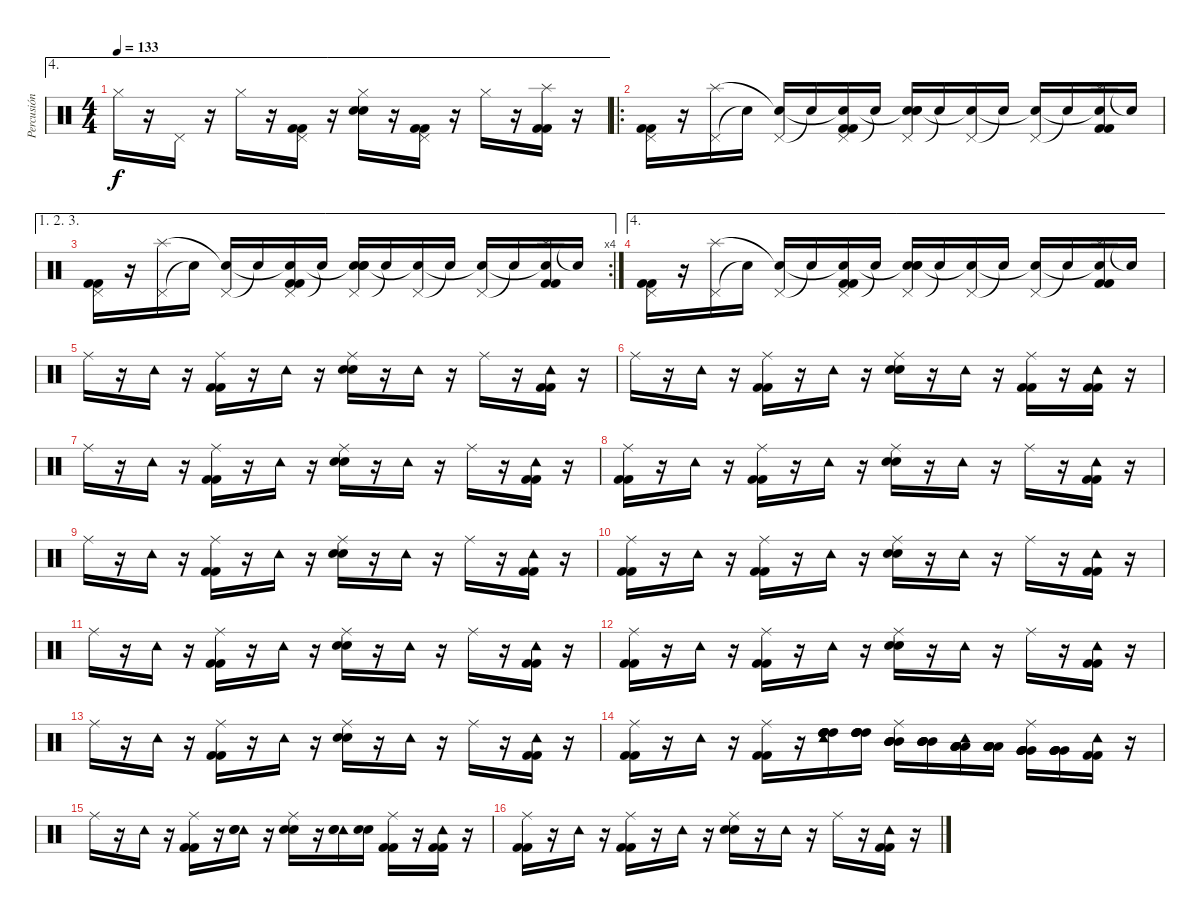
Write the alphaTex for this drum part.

\track ("Percusión" "Percusión") {instrument percussion}
\staff {score}
\articulation defaults
\ae 4
\ts (4 4)
\tempo 133
\clef neutral
\ks c "Hi-Hat (closed)".16{dy f}
r.16 "Pedal Hi-Hat (hit)".16 r.16 "Hi-Hat (closed)".16 r.16 ("Pedal Hi-Hat (hit)" "Kick (hit) 2" "Kick (hit) 2").16 r.16 ("Hi-Hat (closed)" "Electric Snare (hit)" "Electric Snare (hit)").16 r.16 ("Pedal Hi-Hat (hit)" "Kick (hit) 2" "Kick (hit) 2").16 r.16 "Hi-Hat (closed)".16 r.16 ("Splash (hit)" "Kick (hit) 2" "Kick (hit) 2").16 r.16 |
\ro
("Pedal Hi-Hat (hit)" "Kick (hit) 2" "Kick (hit) 2").16 r.16 ("Pedal Hi-Hat (hit)" "Splash (hit)").16 "Snare (hit)"{t}.16 ("Pedal Hi-Hat (hit)" "Snare (hit)"{t}).16 "Snare (hit)"{t}.16 ("Pedal Hi-Hat (hit)" "Snare (hit)"{t} "Kick (hit) 2" "Kick (hit) 2").16 "Snare (hit)"{t}.16 ("Pedal Hi-Hat (hit)" "Snare (hit)"{t} "Electric Snare (hit)" "Electric Snare (hit)").16 "Snare (hit)"{t}.16 ("Pedal Hi-Hat (hit)" "Snare (hit)"{t}).16 "Snare (hit)"{t}.16 ("Pedal Hi-Hat (hit)" "Snare (hit)"{t}).16 "Snare (hit)"{t}.16 ("Splash (hit)" "Snare (hit)"{t} "Kick (hit) 2" "Kick (hit) 2").16 "Snare (hit)"{t}.16 |
\ae (1 2 3)
\rc 4
("Pedal Hi-Hat (hit)" "Kick (hit) 2" "Kick (hit) 2").16 r.16 ("Pedal Hi-Hat (hit)" "Splash (hit)").16 "Snare (hit)"{t}.16 ("Pedal Hi-Hat (hit)" "Snare (hit)"{t}).16 "Snare (hit)"{t}.16 ("Pedal Hi-Hat (hit)" "Snare (hit)"{t} "Kick (hit) 2" "Kick (hit) 2").16 "Snare (hit)"{t}.16 ("Pedal Hi-Hat (hit)" "Snare (hit)"{t} "Electric Snare (hit)" "Electric Snare (hit)").16 "Snare (hit)"{t}.16 ("Pedal Hi-Hat (hit)" "Snare (hit)"{t}).16 "Snare (hit)"{t}.16 ("Pedal Hi-Hat (hit)" "Snare (hit)"{t}).16 "Snare (hit)"{t}.16 ("Splash (hit)" "Snare (hit)"{t} "Kick (hit) 2" "Kick (hit) 2").16 "Snare (hit)"{t}.16 |
\ae 4
("Pedal Hi-Hat (hit)" "Kick (hit) 2" "Kick (hit) 2").16 r.16 ("Pedal Hi-Hat (hit)" "Splash (hit)").16 "Snare (hit)"{t}.16 ("Pedal Hi-Hat (hit)" "Snare (hit)"{t}).16 "Snare (hit)"{t}.16 ("Pedal Hi-Hat (hit)" "Snare (hit)"{t} "Kick (hit) 2" "Kick (hit) 2").16 "Snare (hit)"{t}.16 ("Pedal Hi-Hat (hit)" "Snare (hit)"{t} "Electric Snare (hit)" "Electric Snare (hit)").16 "Snare (hit)"{t}.16 ("Pedal Hi-Hat (hit)" "Snare (hit)"{t}).16 "Snare (hit)"{t}.16 ("Pedal Hi-Hat (hit)" "Snare (hit)"{t}).16 "Snare (hit)"{t}.16 ("Splash (hit)" "Snare (hit)"{t} "Kick (hit) 2" "Kick (hit) 2").16 "Snare (hit)"{t}.16 |
"Ride (middle)".16 r.16 "Tambourine (hit)".16 r.16 ("Ride (middle)" "Kick (hit) 2" "Kick (hit) 2").16 r.16 "Tambourine (hit)".16 r.16 ("Ride (middle)" "Electric Snare (hit)" "Electric Snare (hit)").16 r.16 "Tambourine (hit)".16 r.16 "Ride (middle)".16 r.16 ("Tambourine (hit)" "Kick (hit) 2" "Kick (hit) 2").16 r.16 |
"Ride (middle)".16 r.16 "Tambourine (hit)".16 r.16 ("Ride (middle)" "Kick (hit) 2" "Kick (hit) 2").16 r.16 "Tambourine (hit)".16 r.16 ("Ride (middle)" "Electric Snare (hit)" "Electric Snare (hit)").16 r.16 "Tambourine (hit)".16 r.16 ("Ride (middle)" "Kick (hit) 2" "Kick (hit) 2").16 r.16 ("Tambourine (hit)" "Kick (hit) 2" "Kick (hit) 2").16 r.16 |
"Ride (middle)".16 r.16 "Tambourine (hit)".16 r.16 ("Ride (middle)" "Kick (hit) 2" "Kick (hit) 2").16 r.16 "Tambourine (hit)".16 r.16 ("Ride (middle)" "Electric Snare (hit)" "Electric Snare (hit)").16 r.16 "Tambourine (hit)".16 r.16 "Ride (middle)".16 r.16 ("Tambourine (hit)" "Kick (hit) 2" "Kick (hit) 2").16 r.16 |
("Ride (middle)" "Kick (hit) 2" "Kick (hit) 2").16 r.16 "Tambourine (hit)".16 r.16 ("Ride (middle)" "Kick (hit) 2" "Kick (hit) 2").16 r.16 "Tambourine (hit)".16 r.16 ("Ride (middle)" "Electric Snare (hit)" "Electric Snare (hit)").16 r.16 "Tambourine (hit)".16 r.16 "Ride (middle)".16 r.16 ("Tambourine (hit)" "Kick (hit) 2" "Kick (hit) 2").16 r.16 |
"Ride (middle)".16 r.16 "Tambourine (hit)".16 r.16 ("Ride (middle)" "Kick (hit) 2" "Kick (hit) 2").16 r.16 "Tambourine (hit)".16 r.16 ("Ride (middle)" "Electric Snare (hit)" "Electric Snare (hit)").16 r.16 "Tambourine (hit)".16 r.16 "Ride (middle)".16 r.16 ("Tambourine (hit)" "Kick (hit) 2" "Kick (hit) 2").16 r.16 |
("Ride (middle)" "Kick (hit) 2" "Kick (hit) 2").16 r.16 "Tambourine (hit)".16 r.16 ("Ride (middle)" "Kick (hit) 2" "Kick (hit) 2").16 r.16 "Tambourine (hit)".16 r.16 ("Ride (middle)" "Electric Snare (hit)" "Electric Snare (hit)").16 r.16 "Tambourine (hit)".16 r.16 "Ride (middle)".16 r.16 ("Tambourine (hit)" "Kick (hit) 2" "Kick (hit) 2").16 r.16 |
"Ride (middle)".16 r.16 "Tambourine (hit)".16 r.16 ("Ride (middle)" "Kick (hit) 2" "Kick (hit) 2").16 r.16 "Tambourine (hit)".16 r.16 ("Ride (middle)" "Electric Snare (hit)" "Electric Snare (hit)").16 r.16 "Tambourine (hit)".16 r.16 "Ride (middle)".16 r.16 ("Tambourine (hit)" "Kick (hit) 2" "Kick (hit) 2").16 r.16 |
("Ride (middle)" "Kick (hit) 2" "Kick (hit) 2").16 r.16 "Tambourine (hit)".16 r.16 ("Ride (middle)" "Kick (hit) 2" "Kick (hit) 2").16 r.16 "Tambourine (hit)".16 r.16 ("Ride (middle)" "Electric Snare (hit)" "Electric Snare (hit)").16 r.16 "Tambourine (hit)".16 r.16 "Ride (middle)".16 r.16 ("Tambourine (hit)" "Kick (hit) 2" "Kick (hit) 2").16 r.16 |
"Ride (middle)".16 r.16 "Tambourine (hit)".16 r.16 ("Ride (middle)" "Kick (hit) 2" "Kick (hit) 2").16 r.16 "Tambourine (hit)".16 r.16 ("Ride (middle)" "Electric Snare (hit)" "Electric Snare (hit)").16 r.16 "Tambourine (hit)".16 r.16 "Ride (middle)".16 r.16 ("Tambourine (hit)" "Kick (hit) 2" "Kick (hit) 2").16 r.16 |
("Ride (middle)" "Kick (hit) 2" "Kick (hit) 2").16 r.16 "Tambourine (hit)".16 r.16 ("Ride (middle)" "Kick (hit) 2" "Kick (hit) 2").16 r.16 ("Tambourine (hit)" "High Tom (hit)" "High Tom (hit)" "High Tom (hit)" "High Tom (hit)" "High Tom (hit)").16 ("High Tom (hit)" "High Tom (hit)" "High Tom (hit)" "High Tom (hit)" "High Tom (hit)").16 ("Ride (middle)" "Mid Tom (hit)" "Mid Tom (hit)" "Mid Tom (hit)" "Mid Tom (hit)" "Mid Tom (hit)").16 ("Mid Tom (hit)" "Mid Tom (hit)" "Mid Tom (hit)" "Mid Tom (hit)" "Mid Tom (hit)").16 ("Tambourine (hit)" "Low Tom (hit)" "Low Tom (hit)" "Low Tom (hit)" "Low Tom (hit)" "Low Tom (hit)").16 ("Low Tom (hit)" "Low Tom (hit)" "Low Tom (hit)" "Low Tom (hit)" "Low Tom (hit)").16 ("Ride (middle)" "Very Low Tom (hit)" "Very Low Tom (hit)" "Very Low Tom (hit)" "Very Low Tom (hit)" "Very Low Tom (hit)").16 ("Very Low Tom (hit)" "Very Low Tom (hit)" "Very Low Tom (hit)" "Very Low Tom (hit)" "Very Low Tom (hit)").16 ("Tambourine (hit)" "Kick (hit) 2" "Kick (hit) 2").16 r.16 |
"Ride (middle)".16 r.16 "Tambourine (hit)".16 r.16 ("Ride (middle)" "Kick (hit) 2" "Kick (hit) 2").16 r.16 ("Tambourine (hit)" "Electric Snare (hit)" "Electric Snare (hit)").16 r.16 ("Ride (middle)" "Electric Snare (hit)" "Electric Snare (hit)").16 r.16 ("Tambourine (hit)" "Electric Snare (hit)" "Electric Snare (hit)").16 ("Electric Snare (hit)" "Electric Snare (hit)").16 ("Ride (middle)" "Kick (hit) 2" "Kick (hit) 2").16 r.16 ("Tambourine (hit)" "Kick (hit) 2" "Kick (hit) 2").16 r.16 |
("Ride (middle)" "Kick (hit) 2" "Kick (hit) 2").16 r.16 "Tambourine (hit)".16 r.16 ("Ride (middle)" "Kick (hit) 2" "Kick (hit) 2").16 r.16 "Tambourine (hit)".16 r.16 ("Ride (middle)" "Electric Snare (hit)" "Electric Snare (hit)").16 r.16 "Tambourine (hit)".16 r.16 "Ride (middle)".16 r.16 ("Tambourine (hit)" "Kick (hit) 2" "Kick (hit) 2").16 r.16
